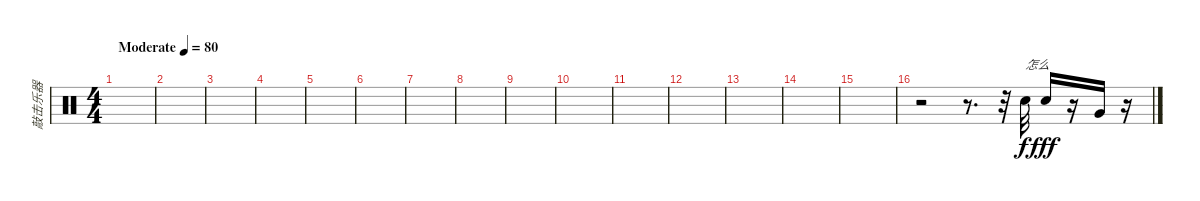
\track ("敲击乐器" "敲击乐器") {instrument percussion}
\staff {score}
\articulation defaults
\ts (4 4)
\tempo (80 "Moderate")
\clef neutral
\ks c
|
|
|
|
|
|
|
|
|
|
|
|
|
|
|
r.2 r.8{d} r.32 "Electric Snare (hit)".32{txt "怎么"} "Electric Snare (hit)".16{dy fff} r.16 "Very Low Tom (hit)".16 r.16
